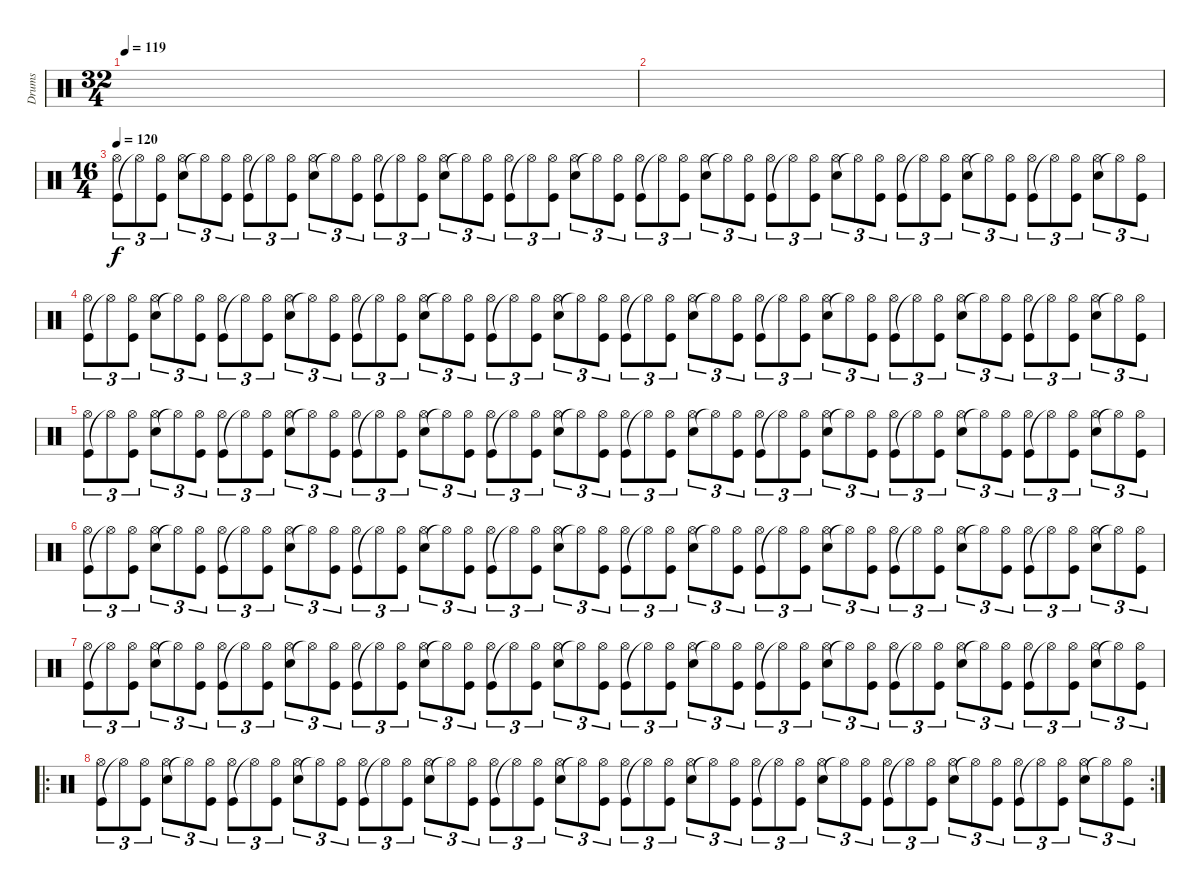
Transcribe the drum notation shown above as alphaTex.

\track ("Drums" "Drums") {instrument percussion}
\staff {score}
\articulation defaults
\ts (32 4)
\tempo 119
\clef neutral
\ks c
|
|
\ts (16 4)
\tempo 120
("Kick (hit)" "Hi-Hat (open)").8{tu (3 2)} "Hi-Hat (open)"{t}.8{tu (3 2)} ("Kick (hit)" "Hi-Hat (open)").8{tu (3 2)} ("Snare (hit) 2" "Hi-Hat (open)").8{tu (3 2)} "Hi-Hat (open)"{t}.8{tu (3 2)} ("Kick (hit)" "Hi-Hat (open)").8{tu (3 2)} ("Kick (hit)" "Hi-Hat (open)").8{tu (3 2)} "Hi-Hat (open)"{t}.8{tu (3 2)} ("Kick (hit)" "Hi-Hat (open)").8{tu (3 2)} ("Snare (hit) 2" "Hi-Hat (open)").8{tu (3 2)} "Hi-Hat (open)"{t}.8{tu (3 2)} ("Kick (hit)" "Hi-Hat (open)").8{tu (3 2)} ("Kick (hit)" "Hi-Hat (open)").8{tu (3 2)} "Hi-Hat (open)"{t}.8{tu (3 2)} ("Kick (hit)" "Hi-Hat (open)").8{tu (3 2)} ("Snare (hit) 2" "Hi-Hat (open)").8{tu (3 2)} "Hi-Hat (open)"{t}.8{tu (3 2)} ("Kick (hit)" "Hi-Hat (open)").8{tu (3 2)} ("Kick (hit)" "Hi-Hat (open)").8{tu (3 2)} "Hi-Hat (open)"{t}.8{tu (3 2)} ("Kick (hit)" "Hi-Hat (open)").8{tu (3 2)} ("Snare (hit) 2" "Hi-Hat (open)").8{tu (3 2)} "Hi-Hat (open)"{t}.8{tu (3 2)} ("Kick (hit)" "Hi-Hat (open)").8{tu (3 2)} ("Kick (hit)" "Hi-Hat (open)").8{tu (3 2)} "Hi-Hat (open)"{t}.8{tu (3 2)} ("Kick (hit)" "Hi-Hat (open)").8{tu (3 2)} ("Snare (hit) 2" "Hi-Hat (open)").8{tu (3 2)} "Hi-Hat (open)"{t}.8{tu (3 2)} ("Kick (hit)" "Hi-Hat (open)").8{tu (3 2)} ("Kick (hit)" "Hi-Hat (open)").8{tu (3 2)} "Hi-Hat (open)"{t}.8{tu (3 2)} ("Kick (hit)" "Hi-Hat (open)").8{tu (3 2)} ("Snare (hit) 2" "Hi-Hat (open)").8{tu (3 2)} "Hi-Hat (open)"{t}.8{tu (3 2)} ("Kick (hit)" "Hi-Hat (open)").8{tu (3 2)} ("Kick (hit)" "Hi-Hat (open)").8{tu (3 2)} "Hi-Hat (open)"{t}.8{tu (3 2)} ("Kick (hit)" "Hi-Hat (open)").8{tu (3 2)} ("Snare (hit) 2" "Hi-Hat (open)").8{tu (3 2)} "Hi-Hat (open)"{t}.8{tu (3 2)} ("Kick (hit)" "Hi-Hat (open)").8{tu (3 2)} ("Kick (hit)" "Hi-Hat (open)").8{tu (3 2)} "Hi-Hat (open)"{t}.8{tu (3 2)} ("Kick (hit)" "Hi-Hat (open)").8{tu (3 2)} ("Snare (hit) 2" "Hi-Hat (open)").8{tu (3 2)} "Hi-Hat (open)"{t}.8{tu (3 2)} ("Kick (hit)" "Hi-Hat (open)").8{tu (3 2)} |
("Kick (hit)" "Hi-Hat (open)").8{tu (3 2)} "Hi-Hat (open)"{t}.8{tu (3 2)} ("Kick (hit)" "Hi-Hat (open)").8{tu (3 2)} ("Snare (hit) 2" "Hi-Hat (open)").8{tu (3 2)} "Hi-Hat (open)"{t}.8{tu (3 2)} ("Kick (hit)" "Hi-Hat (open)").8{tu (3 2)} ("Kick (hit)" "Hi-Hat (open)").8{tu (3 2)} "Hi-Hat (open)"{t}.8{tu (3 2)} ("Kick (hit)" "Hi-Hat (open)").8{tu (3 2)} ("Snare (hit) 2" "Hi-Hat (open)").8{tu (3 2)} "Hi-Hat (open)"{t}.8{tu (3 2)} ("Kick (hit)" "Hi-Hat (open)").8{tu (3 2)} ("Kick (hit)" "Hi-Hat (open)").8{tu (3 2)} "Hi-Hat (open)"{t}.8{tu (3 2)} ("Kick (hit)" "Hi-Hat (open)").8{tu (3 2)} ("Snare (hit) 2" "Hi-Hat (open)").8{tu (3 2)} "Hi-Hat (open)"{t}.8{tu (3 2)} ("Kick (hit)" "Hi-Hat (open)").8{tu (3 2)} ("Kick (hit)" "Hi-Hat (open)").8{tu (3 2)} "Hi-Hat (open)"{t}.8{tu (3 2)} ("Kick (hit)" "Hi-Hat (open)").8{tu (3 2)} ("Snare (hit) 2" "Hi-Hat (open)").8{tu (3 2)} "Hi-Hat (open)"{t}.8{tu (3 2)} ("Kick (hit)" "Hi-Hat (open)").8{tu (3 2)} ("Kick (hit)" "Hi-Hat (open)").8{tu (3 2)} "Hi-Hat (open)"{t}.8{tu (3 2)} ("Kick (hit)" "Hi-Hat (open)").8{tu (3 2)} ("Snare (hit) 2" "Hi-Hat (open)").8{tu (3 2)} "Hi-Hat (open)"{t}.8{tu (3 2)} ("Kick (hit)" "Hi-Hat (open)").8{tu (3 2)} ("Kick (hit)" "Hi-Hat (open)").8{tu (3 2)} "Hi-Hat (open)"{t}.8{tu (3 2)} ("Kick (hit)" "Hi-Hat (open)").8{tu (3 2)} ("Snare (hit) 2" "Hi-Hat (open)").8{tu (3 2)} "Hi-Hat (open)"{t}.8{tu (3 2)} ("Kick (hit)" "Hi-Hat (open)").8{tu (3 2)} ("Kick (hit)" "Hi-Hat (open)").8{tu (3 2)} "Hi-Hat (open)"{t}.8{tu (3 2)} ("Kick (hit)" "Hi-Hat (open)").8{tu (3 2)} ("Snare (hit) 2" "Hi-Hat (open)").8{tu (3 2)} "Hi-Hat (open)"{t}.8{tu (3 2)} ("Kick (hit)" "Hi-Hat (open)").8{tu (3 2)} ("Kick (hit)" "Hi-Hat (open)").8{tu (3 2)} "Hi-Hat (open)"{t}.8{tu (3 2)} ("Kick (hit)" "Hi-Hat (open)").8{tu (3 2)} ("Snare (hit) 2" "Hi-Hat (open)").8{tu (3 2)} "Hi-Hat (open)"{t}.8{tu (3 2)} ("Kick (hit)" "Hi-Hat (open)").8{tu (3 2)} |
("Kick (hit)" "Hi-Hat (open)").8{tu (3 2)} "Hi-Hat (open)"{t}.8{tu (3 2)} ("Kick (hit)" "Hi-Hat (open)").8{tu (3 2)} ("Snare (hit) 2" "Hi-Hat (open)").8{tu (3 2)} "Hi-Hat (open)"{t}.8{tu (3 2)} ("Kick (hit)" "Hi-Hat (open)").8{tu (3 2)} ("Kick (hit)" "Hi-Hat (open)").8{tu (3 2)} "Hi-Hat (open)"{t}.8{tu (3 2)} ("Kick (hit)" "Hi-Hat (open)").8{tu (3 2)} ("Snare (hit) 2" "Hi-Hat (open)").8{tu (3 2)} "Hi-Hat (open)"{t}.8{tu (3 2)} ("Kick (hit)" "Hi-Hat (open)").8{tu (3 2)} ("Kick (hit)" "Hi-Hat (open)").8{tu (3 2)} "Hi-Hat (open)"{t}.8{tu (3 2)} ("Kick (hit)" "Hi-Hat (open)").8{tu (3 2)} ("Snare (hit) 2" "Hi-Hat (open)").8{tu (3 2)} "Hi-Hat (open)"{t}.8{tu (3 2)} ("Kick (hit)" "Hi-Hat (open)").8{tu (3 2)} ("Kick (hit)" "Hi-Hat (open)").8{tu (3 2)} "Hi-Hat (open)"{t}.8{tu (3 2)} ("Kick (hit)" "Hi-Hat (open)").8{tu (3 2)} ("Snare (hit) 2" "Hi-Hat (open)").8{tu (3 2)} "Hi-Hat (open)"{t}.8{tu (3 2)} ("Kick (hit)" "Hi-Hat (open)").8{tu (3 2)} ("Kick (hit)" "Hi-Hat (open)").8{tu (3 2)} "Hi-Hat (open)"{t}.8{tu (3 2)} ("Kick (hit)" "Hi-Hat (open)").8{tu (3 2)} ("Snare (hit) 2" "Hi-Hat (open)").8{tu (3 2)} "Hi-Hat (open)"{t}.8{tu (3 2)} ("Kick (hit)" "Hi-Hat (open)").8{tu (3 2)} ("Kick (hit)" "Hi-Hat (open)").8{tu (3 2)} "Hi-Hat (open)"{t}.8{tu (3 2)} ("Kick (hit)" "Hi-Hat (open)").8{tu (3 2)} ("Snare (hit) 2" "Hi-Hat (open)").8{tu (3 2)} "Hi-Hat (open)"{t}.8{tu (3 2)} ("Kick (hit)" "Hi-Hat (open)").8{tu (3 2)} ("Kick (hit)" "Hi-Hat (open)").8{tu (3 2)} "Hi-Hat (open)"{t}.8{tu (3 2)} ("Kick (hit)" "Hi-Hat (open)").8{tu (3 2)} ("Snare (hit) 2" "Hi-Hat (open)").8{tu (3 2)} "Hi-Hat (open)"{t}.8{tu (3 2)} ("Kick (hit)" "Hi-Hat (open)").8{tu (3 2)} ("Kick (hit)" "Hi-Hat (open)").8{tu (3 2)} "Hi-Hat (open)"{t}.8{tu (3 2)} ("Kick (hit)" "Hi-Hat (open)").8{tu (3 2)} ("Snare (hit) 2" "Hi-Hat (open)").8{tu (3 2)} "Hi-Hat (open)"{t}.8{tu (3 2)} ("Kick (hit)" "Hi-Hat (open)").8{tu (3 2)} |
("Kick (hit)" "Hi-Hat (open)").8{tu (3 2)} "Hi-Hat (open)"{t}.8{tu (3 2)} ("Kick (hit)" "Hi-Hat (open)").8{tu (3 2)} ("Snare (hit) 2" "Hi-Hat (open)").8{tu (3 2)} "Hi-Hat (open)"{t}.8{tu (3 2)} ("Kick (hit)" "Hi-Hat (open)").8{tu (3 2)} ("Kick (hit)" "Hi-Hat (open)").8{tu (3 2)} "Hi-Hat (open)"{t}.8{tu (3 2)} ("Kick (hit)" "Hi-Hat (open)").8{tu (3 2)} ("Snare (hit) 2" "Hi-Hat (open)").8{tu (3 2)} "Hi-Hat (open)"{t}.8{tu (3 2)} ("Kick (hit)" "Hi-Hat (open)").8{tu (3 2)} ("Kick (hit)" "Hi-Hat (open)").8{tu (3 2)} "Hi-Hat (open)"{t}.8{tu (3 2)} ("Kick (hit)" "Hi-Hat (open)").8{tu (3 2)} ("Snare (hit) 2" "Hi-Hat (open)").8{tu (3 2)} "Hi-Hat (open)"{t}.8{tu (3 2)} ("Kick (hit)" "Hi-Hat (open)").8{tu (3 2)} ("Kick (hit)" "Hi-Hat (open)").8{tu (3 2)} "Hi-Hat (open)"{t}.8{tu (3 2)} ("Kick (hit)" "Hi-Hat (open)").8{tu (3 2)} ("Snare (hit) 2" "Hi-Hat (open)").8{tu (3 2)} "Hi-Hat (open)"{t}.8{tu (3 2)} ("Kick (hit)" "Hi-Hat (open)").8{tu (3 2)} ("Kick (hit)" "Hi-Hat (open)").8{tu (3 2)} "Hi-Hat (open)"{t}.8{tu (3 2)} ("Kick (hit)" "Hi-Hat (open)").8{tu (3 2)} ("Snare (hit) 2" "Hi-Hat (open)").8{tu (3 2)} "Hi-Hat (open)"{t}.8{tu (3 2)} ("Kick (hit)" "Hi-Hat (open)").8{tu (3 2)} ("Kick (hit)" "Hi-Hat (open)").8{tu (3 2)} "Hi-Hat (open)"{t}.8{tu (3 2)} ("Kick (hit)" "Hi-Hat (open)").8{tu (3 2)} ("Snare (hit) 2" "Hi-Hat (open)").8{tu (3 2)} "Hi-Hat (open)"{t}.8{tu (3 2)} ("Kick (hit)" "Hi-Hat (open)").8{tu (3 2)} ("Kick (hit)" "Hi-Hat (open)").8{tu (3 2)} "Hi-Hat (open)"{t}.8{tu (3 2)} ("Kick (hit)" "Hi-Hat (open)").8{tu (3 2)} ("Snare (hit) 2" "Hi-Hat (open)").8{tu (3 2)} "Hi-Hat (open)"{t}.8{tu (3 2)} ("Kick (hit)" "Hi-Hat (open)").8{tu (3 2)} ("Kick (hit)" "Hi-Hat (open)").8{tu (3 2)} "Hi-Hat (open)"{t}.8{tu (3 2)} ("Kick (hit)" "Hi-Hat (open)").8{tu (3 2)} ("Snare (hit) 2" "Hi-Hat (open)").8{tu (3 2)} "Hi-Hat (open)"{t}.8{tu (3 2)} ("Kick (hit)" "Hi-Hat (open)").8{tu (3 2)} |
("Kick (hit)" "Hi-Hat (open)").8{tu (3 2)} "Hi-Hat (open)"{t}.8{tu (3 2)} ("Kick (hit)" "Hi-Hat (open)").8{tu (3 2)} ("Snare (hit) 2" "Hi-Hat (open)").8{tu (3 2)} "Hi-Hat (open)"{t}.8{tu (3 2)} ("Kick (hit)" "Hi-Hat (open)").8{tu (3 2)} ("Kick (hit)" "Hi-Hat (open)").8{tu (3 2)} "Hi-Hat (open)"{t}.8{tu (3 2)} ("Kick (hit)" "Hi-Hat (open)").8{tu (3 2)} ("Snare (hit) 2" "Hi-Hat (open)").8{tu (3 2)} "Hi-Hat (open)"{t}.8{tu (3 2)} ("Kick (hit)" "Hi-Hat (open)").8{tu (3 2)} ("Kick (hit)" "Hi-Hat (open)").8{tu (3 2)} "Hi-Hat (open)"{t}.8{tu (3 2)} ("Kick (hit)" "Hi-Hat (open)").8{tu (3 2)} ("Snare (hit) 2" "Hi-Hat (open)").8{tu (3 2)} "Hi-Hat (open)"{t}.8{tu (3 2)} ("Kick (hit)" "Hi-Hat (open)").8{tu (3 2)} ("Kick (hit)" "Hi-Hat (open)").8{tu (3 2)} "Hi-Hat (open)"{t}.8{tu (3 2)} ("Kick (hit)" "Hi-Hat (open)").8{tu (3 2)} ("Snare (hit) 2" "Hi-Hat (open)").8{tu (3 2)} "Hi-Hat (open)"{t}.8{tu (3 2)} ("Kick (hit)" "Hi-Hat (open)").8{tu (3 2)} ("Kick (hit)" "Hi-Hat (open)").8{tu (3 2)} "Hi-Hat (open)"{t}.8{tu (3 2)} ("Kick (hit)" "Hi-Hat (open)").8{tu (3 2)} ("Snare (hit) 2" "Hi-Hat (open)").8{tu (3 2)} "Hi-Hat (open)"{t}.8{tu (3 2)} ("Kick (hit)" "Hi-Hat (open)").8{tu (3 2)} ("Kick (hit)" "Hi-Hat (open)").8{tu (3 2)} "Hi-Hat (open)"{t}.8{tu (3 2)} ("Kick (hit)" "Hi-Hat (open)").8{tu (3 2)} ("Snare (hit) 2" "Hi-Hat (open)").8{tu (3 2)} "Hi-Hat (open)"{t}.8{tu (3 2)} ("Kick (hit)" "Hi-Hat (open)").8{tu (3 2)} ("Kick (hit)" "Hi-Hat (open)").8{tu (3 2)} "Hi-Hat (open)"{t}.8{tu (3 2)} ("Kick (hit)" "Hi-Hat (open)").8{tu (3 2)} ("Snare (hit) 2" "Hi-Hat (open)").8{tu (3 2)} "Hi-Hat (open)"{t}.8{tu (3 2)} ("Kick (hit)" "Hi-Hat (open)").8{tu (3 2)} ("Kick (hit)" "Hi-Hat (open)").8{tu (3 2)} "Hi-Hat (open)"{t}.8{tu (3 2)} ("Kick (hit)" "Hi-Hat (open)").8{tu (3 2)} ("Snare (hit) 2" "Hi-Hat (open)").8{tu (3 2)} "Hi-Hat (open)"{t}.8{tu (3 2)} ("Kick (hit)" "Hi-Hat (open)").8{tu (3 2)} |
\ro
\rc 2
("Kick (hit)" "Hi-Hat (open)").8{tu (3 2)} "Hi-Hat (open)"{t}.8{tu (3 2)} ("Kick (hit)" "Hi-Hat (open)").8{tu (3 2)} ("Snare (hit) 2" "Hi-Hat (open)").8{tu (3 2)} "Hi-Hat (open)"{t}.8{tu (3 2)} ("Kick (hit)" "Hi-Hat (open)").8{tu (3 2)} ("Kick (hit)" "Hi-Hat (open)").8{tu (3 2)} "Hi-Hat (open)"{t}.8{tu (3 2)} ("Kick (hit)" "Hi-Hat (open)").8{tu (3 2)} ("Snare (hit) 2" "Hi-Hat (open)").8{tu (3 2)} "Hi-Hat (open)"{t}.8{tu (3 2)} ("Kick (hit)" "Hi-Hat (open)").8{tu (3 2)} ("Kick (hit)" "Hi-Hat (open)").8{tu (3 2)} "Hi-Hat (open)"{t}.8{tu (3 2)} ("Kick (hit)" "Hi-Hat (open)").8{tu (3 2)} ("Snare (hit) 2" "Hi-Hat (open)").8{tu (3 2)} "Hi-Hat (open)"{t}.8{tu (3 2)} ("Kick (hit)" "Hi-Hat (open)").8{tu (3 2)} ("Kick (hit)" "Hi-Hat (open)").8{tu (3 2)} "Hi-Hat (open)"{t}.8{tu (3 2)} ("Kick (hit)" "Hi-Hat (open)").8{tu (3 2)} ("Snare (hit) 2" "Hi-Hat (open)").8{tu (3 2)} "Hi-Hat (open)"{t}.8{tu (3 2)} ("Kick (hit)" "Hi-Hat (open)").8{tu (3 2)} ("Kick (hit)" "Hi-Hat (open)").8{tu (3 2)} "Hi-Hat (open)"{t}.8{tu (3 2)} ("Kick (hit)" "Hi-Hat (open)").8{tu (3 2)} ("Snare (hit) 2" "Hi-Hat (open)").8{tu (3 2)} "Hi-Hat (open)"{t}.8{tu (3 2)} ("Kick (hit)" "Hi-Hat (open)").8{tu (3 2)} ("Kick (hit)" "Hi-Hat (open)").8{tu (3 2)} "Hi-Hat (open)"{t}.8{tu (3 2)} ("Kick (hit)" "Hi-Hat (open)").8{tu (3 2)} ("Snare (hit) 2" "Hi-Hat (open)").8{tu (3 2)} "Hi-Hat (open)"{t}.8{tu (3 2)} ("Kick (hit)" "Hi-Hat (open)").8{tu (3 2)} ("Kick (hit)" "Hi-Hat (open)").8{tu (3 2)} "Hi-Hat (open)"{t}.8{tu (3 2)} ("Kick (hit)" "Hi-Hat (open)").8{tu (3 2)} ("Snare (hit) 2" "Hi-Hat (open)").8{tu (3 2)} "Hi-Hat (open)"{t}.8{tu (3 2)} ("Kick (hit)" "Hi-Hat (open)").8{tu (3 2)} ("Kick (hit)" "Hi-Hat (open)").8{tu (3 2)} "Hi-Hat (open)"{t}.8{tu (3 2)} ("Kick (hit)" "Hi-Hat (open)").8{tu (3 2)} ("Snare (hit) 2" "Hi-Hat (open)").8{tu (3 2)} "Hi-Hat (open)"{t}.8{tu (3 2)} ("Kick (hit)" "Hi-Hat (open)").8{tu (3 2)}
